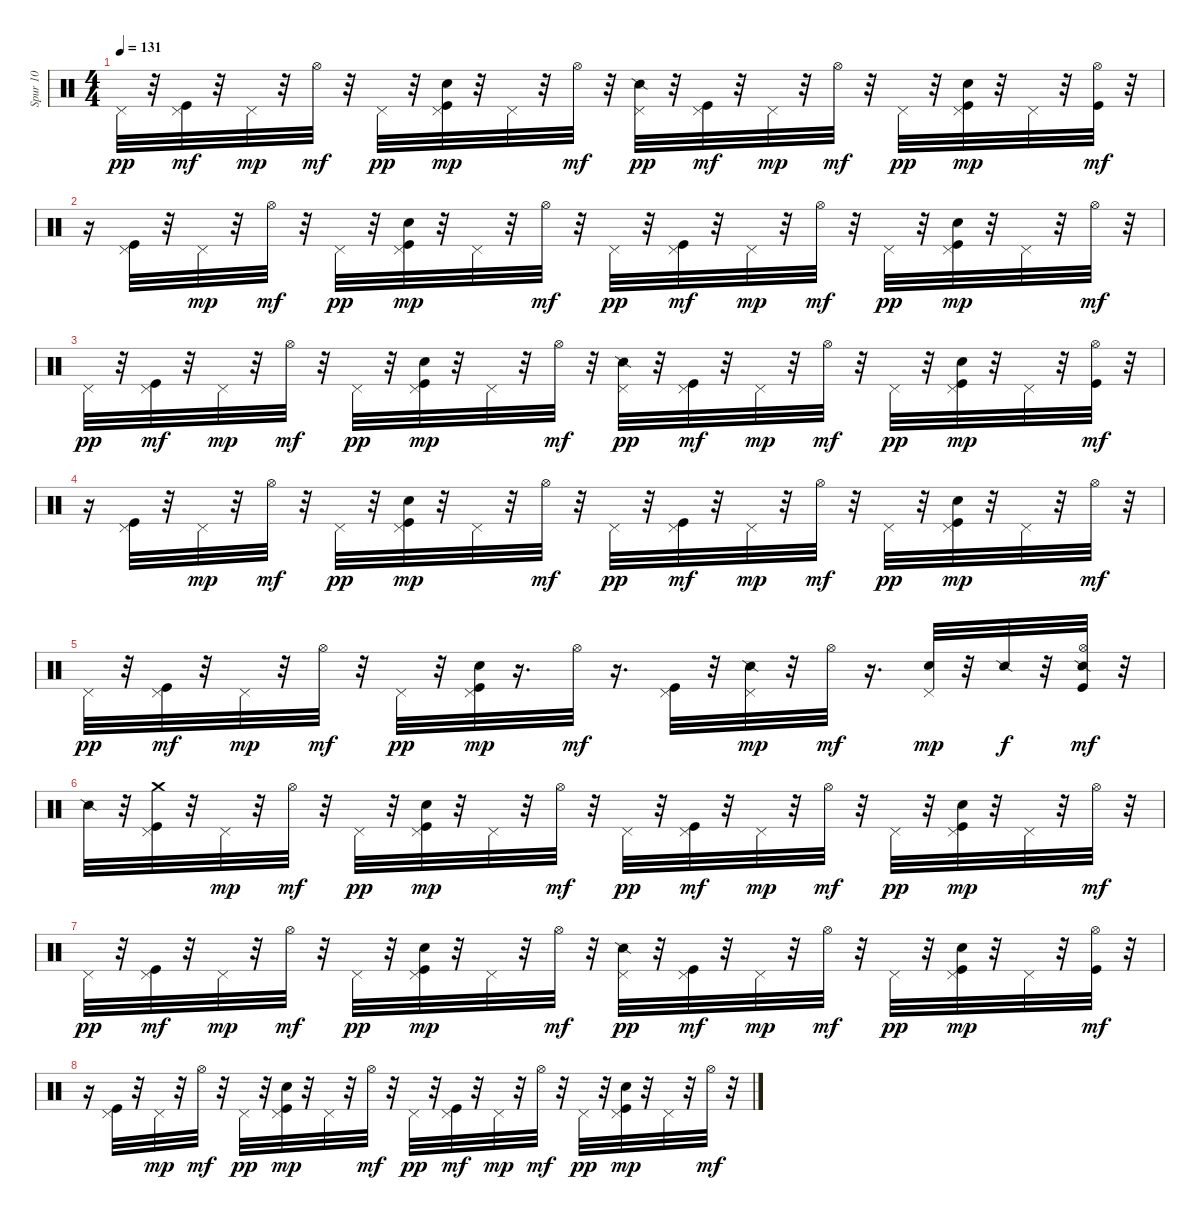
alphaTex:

\track ("Spur 10" "Spur 10") {instrument percussion}
\staff {score}
\articulation defaults
\ts (4 4)
\tempo 131
\clef neutral
\ks c "Pedal Hi-Hat (hit)".32{dy pp}
r.32 ("Kick (hit)" "Pedal Hi-Hat (hit)").32{dy mf} r.32 "Pedal Hi-Hat (hit)".32{dy mp} r.32 "Hi-Hat (open)".32{dy mf} r.32 "Pedal Hi-Hat (hit)".32{dy pp} r.32 ("Kick (hit)" "Hand Clap (hit)" "Pedal Hi-Hat (hit)").32{dy mp} r.32 "Pedal Hi-Hat (hit)".32 r.32 "Hi-Hat (open)".32{dy mf} r.32 ("Pedal Hi-Hat (hit)" "Snare (side stick) 2").32{dy pp} r.32 ("Kick (hit)" "Pedal Hi-Hat (hit)").32{dy mf} r.32 "Pedal Hi-Hat (hit)".32{dy mp} r.32 "Hi-Hat (open)".32{dy mf} r.32 "Pedal Hi-Hat (hit)".32{dy pp} r.32 ("Kick (hit)" "Hand Clap (hit)" "Pedal Hi-Hat (hit)").32{dy mp} r.32 "Pedal Hi-Hat (hit)".32 r.32 ("Kick (hit)" "Hi-Hat (open)").32{dy mf} r.32 |
r.16 ("Kick (hit)" "Pedal Hi-Hat (hit)").32 r.32 "Pedal Hi-Hat (hit)".32{dy mp} r.32 "Hi-Hat (open)".32{dy mf} r.32 "Pedal Hi-Hat (hit)".32{dy pp} r.32 ("Kick (hit)" "Hand Clap (hit)" "Pedal Hi-Hat (hit)").32{dy mp} r.32 "Pedal Hi-Hat (hit)".32 r.32 "Hi-Hat (open)".32{dy mf} r.32 "Pedal Hi-Hat (hit)".32{dy pp} r.32 ("Kick (hit)" "Pedal Hi-Hat (hit)").32{dy mf} r.32 "Pedal Hi-Hat (hit)".32{dy mp} r.32 "Hi-Hat (open)".32{dy mf} r.32 "Pedal Hi-Hat (hit)".32{dy pp} r.32 ("Kick (hit)" "Hand Clap (hit)" "Pedal Hi-Hat (hit)").32{dy mp} r.32 "Pedal Hi-Hat (hit)".32 r.32 "Hi-Hat (open)".32{dy mf} r.32 |
"Pedal Hi-Hat (hit)".32{dy pp} r.32 ("Kick (hit)" "Pedal Hi-Hat (hit)").32{dy mf} r.32 "Pedal Hi-Hat (hit)".32{dy mp} r.32 "Hi-Hat (open)".32{dy mf} r.32 "Pedal Hi-Hat (hit)".32{dy pp} r.32 ("Kick (hit)" "Hand Clap (hit)" "Pedal Hi-Hat (hit)").32{dy mp} r.32 "Pedal Hi-Hat (hit)".32 r.32 "Hi-Hat (open)".32{dy mf} r.32 ("Pedal Hi-Hat (hit)" "Snare (side stick) 2").32{dy pp} r.32 ("Kick (hit)" "Pedal Hi-Hat (hit)").32{dy mf} r.32 "Pedal Hi-Hat (hit)".32{dy mp} r.32 "Hi-Hat (open)".32{dy mf} r.32 "Pedal Hi-Hat (hit)".32{dy pp} r.32 ("Kick (hit)" "Hand Clap (hit)" "Pedal Hi-Hat (hit)").32{dy mp} r.32 "Pedal Hi-Hat (hit)".32 r.32 ("Kick (hit)" "Hi-Hat (open)").32{dy mf} r.32 |
r.16 ("Kick (hit)" "Pedal Hi-Hat (hit)").32 r.32 "Pedal Hi-Hat (hit)".32{dy mp} r.32 "Hi-Hat (open)".32{dy mf} r.32 "Pedal Hi-Hat (hit)".32{dy pp} r.32 ("Kick (hit)" "Hand Clap (hit)" "Pedal Hi-Hat (hit)").32{dy mp} r.32 "Pedal Hi-Hat (hit)".32 r.32 "Hi-Hat (open)".32{dy mf} r.32 "Pedal Hi-Hat (hit)".32{dy pp} r.32 ("Kick (hit)" "Pedal Hi-Hat (hit)").32{dy mf} r.32 "Pedal Hi-Hat (hit)".32{dy mp} r.32 "Hi-Hat (open)".32{dy mf} r.32 "Pedal Hi-Hat (hit)".32{dy pp} r.32 ("Kick (hit)" "Hand Clap (hit)" "Pedal Hi-Hat (hit)").32{dy mp} r.32 "Pedal Hi-Hat (hit)".32 r.32 "Hi-Hat (open)".32{dy mf} r.32 |
"Pedal Hi-Hat (hit)".32{dy pp} r.32 ("Kick (hit)" "Pedal Hi-Hat (hit)").32{dy mf} r.32 "Pedal Hi-Hat (hit)".32{dy mp} r.32 "Hi-Hat (open)".32{dy mf} r.32 "Pedal Hi-Hat (hit)".32{dy pp} r.32 ("Kick (hit)" "Hand Clap (hit)" "Pedal Hi-Hat (hit)").32{dy mp} r.16{d} "Hi-Hat (open)".32{dy mf} r.16{d} ("Kick (hit)" "Pedal Hi-Hat (hit)").32 r.32 ("Snare (side stick) 2" "Pedal Hi-Hat (hit)").32{dy mp} r.32 "Hi-Hat (open)".32{dy mf} r.16{d} ("Hand Clap (hit)" "Pedal Hi-Hat (hit)").32{dy mp} r.32 "Snare (side stick) 2".32{dy f} r.32 ("Snare (side stick) 2" "Kick (hit)" "Hi-Hat (open)").32{dy mf} r.32 |
"Snare (side stick) 2".32 r.32 ("Crash medium (hit)" "Kick (hit)" "Pedal Hi-Hat (hit)").32 r.32 "Pedal Hi-Hat (hit)".32{dy mp} r.32 "Hi-Hat (open)".32{dy mf} r.32 "Pedal Hi-Hat (hit)".32{dy pp} r.32 ("Kick (hit)" "Hand Clap (hit)" "Pedal Hi-Hat (hit)").32{dy mp} r.32 "Pedal Hi-Hat (hit)".32 r.32 "Hi-Hat (open)".32{dy mf} r.32 "Pedal Hi-Hat (hit)".32{dy pp} r.32 ("Kick (hit)" "Pedal Hi-Hat (hit)").32{dy mf} r.32 "Pedal Hi-Hat (hit)".32{dy mp} r.32 "Hi-Hat (open)".32{dy mf} r.32 "Pedal Hi-Hat (hit)".32{dy pp} r.32 ("Kick (hit)" "Hand Clap (hit)" "Pedal Hi-Hat (hit)").32{dy mp} r.32 "Pedal Hi-Hat (hit)".32 r.32 "Hi-Hat (open)".32{dy mf} r.32 |
"Pedal Hi-Hat (hit)".32{dy pp} r.32 ("Kick (hit)" "Pedal Hi-Hat (hit)").32{dy mf} r.32 "Pedal Hi-Hat (hit)".32{dy mp} r.32 "Hi-Hat (open)".32{dy mf} r.32 "Pedal Hi-Hat (hit)".32{dy pp} r.32 ("Kick (hit)" "Hand Clap (hit)" "Pedal Hi-Hat (hit)").32{dy mp} r.32 "Pedal Hi-Hat (hit)".32 r.32 "Hi-Hat (open)".32{dy mf} r.32 ("Pedal Hi-Hat (hit)" "Snare (side stick) 2").32{dy pp} r.32 ("Kick (hit)" "Pedal Hi-Hat (hit)").32{dy mf} r.32 "Pedal Hi-Hat (hit)".32{dy mp} r.32 "Hi-Hat (open)".32{dy mf} r.32 "Pedal Hi-Hat (hit)".32{dy pp} r.32 ("Kick (hit)" "Hand Clap (hit)" "Pedal Hi-Hat (hit)").32{dy mp} r.32 "Pedal Hi-Hat (hit)".32 r.32 ("Kick (hit)" "Hi-Hat (open)").32{dy mf} r.32 |
r.16 ("Kick (hit)" "Pedal Hi-Hat (hit)").32 r.32 "Pedal Hi-Hat (hit)".32{dy mp} r.32 "Hi-Hat (open)".32{dy mf} r.32 "Pedal Hi-Hat (hit)".32{dy pp} r.32 ("Kick (hit)" "Hand Clap (hit)" "Pedal Hi-Hat (hit)").32{dy mp} r.32 "Pedal Hi-Hat (hit)".32 r.32 "Hi-Hat (open)".32{dy mf} r.32 "Pedal Hi-Hat (hit)".32{dy pp} r.32 ("Kick (hit)" "Pedal Hi-Hat (hit)").32{dy mf} r.32 "Pedal Hi-Hat (hit)".32{dy mp} r.32 "Hi-Hat (open)".32{dy mf} r.32 "Pedal Hi-Hat (hit)".32{dy pp} r.32 ("Kick (hit)" "Hand Clap (hit)" "Pedal Hi-Hat (hit)").32{dy mp} r.32 "Pedal Hi-Hat (hit)".32 r.32 "Hi-Hat (open)".32{dy mf} r.32
